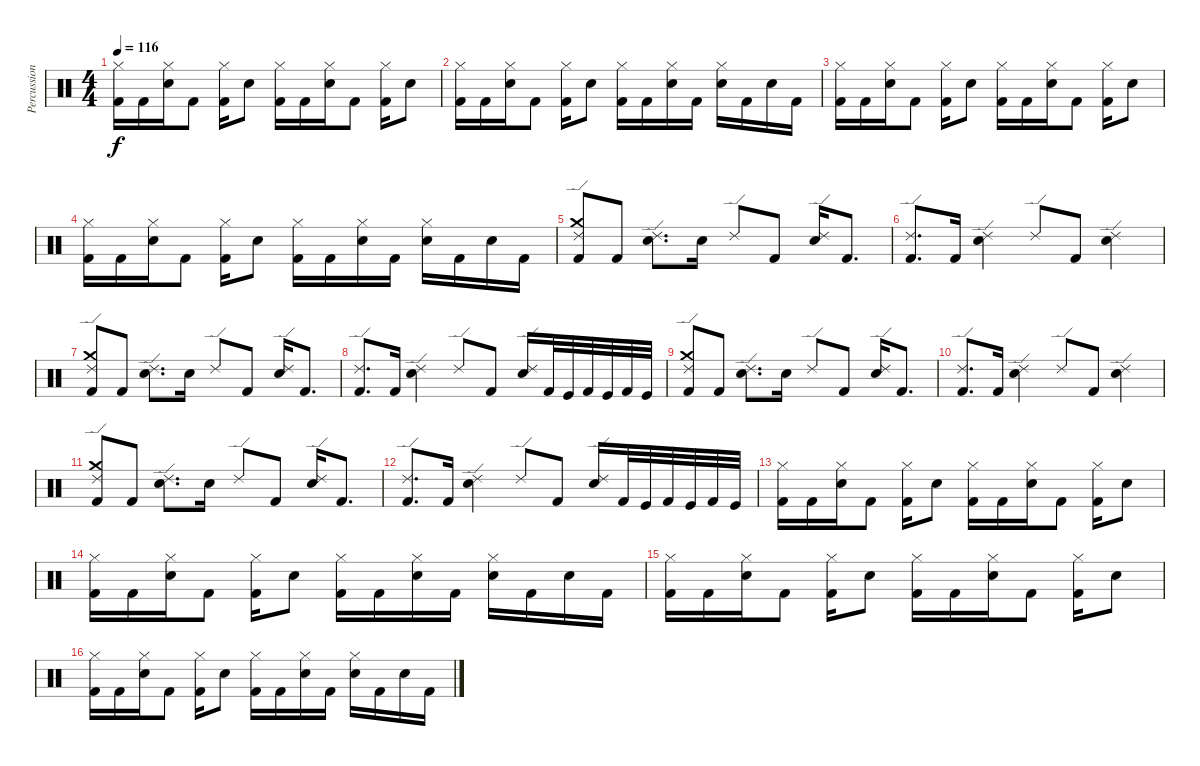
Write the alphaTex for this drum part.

\track ("Percussion" "Percussion") {instrument percussion}
\staff {score}
\articulation defaults
\ts (4 4)
\tempo 116
\clef neutral
\ks c
("Hi-Hat (closed)" "Kick (hit) 2").16{dy f} "Kick (hit) 2".16 ("Hi-Hat (closed)" "Snare (hit) 2").16 "Kick (hit) 2".8 ("Hi-Hat (closed)" "Kick (hit) 2").16 "Snare (hit) 2".8 ("Hi-Hat (closed)" "Kick (hit) 2").16 "Kick (hit) 2".16 ("Hi-Hat (closed)" "Snare (hit) 2").16 "Kick (hit) 2".8 ("Hi-Hat (closed)" "Kick (hit) 2").16 "Snare (hit) 2".8 |
("Hi-Hat (closed)" "Kick (hit) 2").16 "Kick (hit) 2".16 ("Hi-Hat (closed)" "Snare (hit) 2").16 "Kick (hit) 2".8 ("Hi-Hat (closed)" "Kick (hit) 2").16 "Snare (hit) 2".8 ("Hi-Hat (closed)" "Kick (hit) 2").16 "Kick (hit) 2".16 ("Hi-Hat (closed)" "Snare (hit) 2").16 "Kick (hit) 2".16 ("Hi-Hat (closed)" "Snare (hit) 2").16 "Kick (hit) 2".16 "Snare (hit) 2".16 "Kick (hit) 2".16 |
("Hi-Hat (closed)" "Kick (hit) 2").16 "Kick (hit) 2".16 ("Hi-Hat (closed)" "Snare (hit) 2").16 "Kick (hit) 2".8 ("Hi-Hat (closed)" "Kick (hit) 2").16 "Snare (hit) 2".8 ("Hi-Hat (closed)" "Kick (hit) 2").16 "Kick (hit) 2".16 ("Hi-Hat (closed)" "Snare (hit) 2").16 "Kick (hit) 2".8 ("Hi-Hat (closed)" "Kick (hit) 2").16 "Snare (hit) 2".8 |
("Hi-Hat (closed)" "Kick (hit) 2").16 "Kick (hit) 2".16 ("Hi-Hat (closed)" "Snare (hit) 2").16 "Kick (hit) 2".8 ("Hi-Hat (closed)" "Kick (hit) 2").16 "Snare (hit) 2".8 ("Hi-Hat (closed)" "Kick (hit) 2").16 "Kick (hit) 2".16 ("Hi-Hat (closed)" "Snare (hit) 2").16 "Kick (hit) 2".16 ("Hi-Hat (closed)" "Snare (hit) 2").16 "Kick (hit) 2".16 "Snare (hit) 2".16 "Kick (hit) 2".16 |
("Crash medium (hit)" "Ride (edge) 2" "Kick (hit) 2").8 "Kick (hit) 2".8 ("Ride (edge) 2" "Snare (hit) 2").8{d} "Snare (hit) 2".16 "Ride (edge) 2".8 "Kick (hit) 2".8 ("Ride (edge) 2" "Snare (hit) 2").16 "Kick (hit) 2".8{d} |
("Ride (edge) 2" "Kick (hit) 2").8{d} "Kick (hit) 2".16 ("Ride (edge) 2" "Snare (hit) 2").4 "Ride (edge) 2".8 "Kick (hit) 2".8 ("Ride (edge) 2" "Snare (hit) 2").4 |
("Crash medium (hit)" "Ride (edge) 2" "Kick (hit) 2").8 "Kick (hit) 2".8 ("Ride (edge) 2" "Snare (hit) 2").8{d} "Snare (hit) 2".16 "Ride (edge) 2".8 "Kick (hit) 2".8 ("Ride (edge) 2" "Snare (hit) 2").16 "Kick (hit) 2".8{d} |
("Ride (edge) 2" "Kick (hit) 2").8{d} "Kick (hit) 2".16 ("Ride (edge) 2" "Snare (hit) 2").4 "Ride (edge) 2".8 "Kick (hit) 2".8 ("Ride (edge) 2" "Snare (hit) 2").16 "Kick (hit) 2".32 "Kick (hit)".32 "Kick (hit) 2".32 "Kick (hit)".32 "Kick (hit) 2".32 "Kick (hit)".32 |
("Crash medium (hit)" "Ride (edge) 2" "Kick (hit) 2").8 "Kick (hit) 2".8 ("Ride (edge) 2" "Snare (hit) 2").8{d} "Snare (hit) 2".16 "Ride (edge) 2".8 "Kick (hit) 2".8 ("Ride (edge) 2" "Snare (hit) 2").16 "Kick (hit) 2".8{d} |
("Ride (edge) 2" "Kick (hit) 2").8{d} "Kick (hit) 2".16 ("Ride (edge) 2" "Snare (hit) 2").4 "Ride (edge) 2".8 "Kick (hit) 2".8 ("Ride (edge) 2" "Snare (hit) 2").4 |
("Crash medium (hit)" "Ride (edge) 2" "Kick (hit) 2").8 "Kick (hit) 2".8 ("Ride (edge) 2" "Snare (hit) 2").8{d} "Snare (hit) 2".16 "Ride (edge) 2".8 "Kick (hit) 2".8 ("Ride (edge) 2" "Snare (hit) 2").16 "Kick (hit) 2".8{d} |
("Ride (edge) 2" "Kick (hit) 2").8{d} "Kick (hit) 2".16 ("Ride (edge) 2" "Snare (hit) 2").4 "Ride (edge) 2".8 "Kick (hit) 2".8 ("Ride (edge) 2" "Snare (hit) 2").16 "Kick (hit) 2".32 "Kick (hit)".32 "Kick (hit) 2".32 "Kick (hit)".32 "Kick (hit) 2".32 "Kick (hit)".32 |
("Hi-Hat (closed)" "Kick (hit) 2").16 "Kick (hit) 2".16 ("Hi-Hat (closed)" "Snare (hit) 2").16 "Kick (hit) 2".8 ("Hi-Hat (closed)" "Kick (hit) 2").16 "Snare (hit) 2".8 ("Hi-Hat (closed)" "Kick (hit) 2").16 "Kick (hit) 2".16 ("Hi-Hat (closed)" "Snare (hit) 2").16 "Kick (hit) 2".8 ("Hi-Hat (closed)" "Kick (hit) 2").16 "Snare (hit) 2".8 |
("Hi-Hat (closed)" "Kick (hit) 2").16 "Kick (hit) 2".16 ("Hi-Hat (closed)" "Snare (hit) 2").16 "Kick (hit) 2".8 ("Hi-Hat (closed)" "Kick (hit) 2").16 "Snare (hit) 2".8 ("Hi-Hat (closed)" "Kick (hit) 2").16 "Kick (hit) 2".16 ("Hi-Hat (closed)" "Snare (hit) 2").16 "Kick (hit) 2".16 ("Hi-Hat (closed)" "Snare (hit) 2").16 "Kick (hit) 2".16 "Snare (hit) 2".16 "Kick (hit) 2".16 |
("Hi-Hat (closed)" "Kick (hit) 2").16 "Kick (hit) 2".16 ("Hi-Hat (closed)" "Snare (hit) 2").16 "Kick (hit) 2".8 ("Hi-Hat (closed)" "Kick (hit) 2").16 "Snare (hit) 2".8 ("Hi-Hat (closed)" "Kick (hit) 2").16 "Kick (hit) 2".16 ("Hi-Hat (closed)" "Snare (hit) 2").16 "Kick (hit) 2".8 ("Hi-Hat (closed)" "Kick (hit) 2").16 "Snare (hit) 2".8 |
("Hi-Hat (closed)" "Kick (hit) 2").16 "Kick (hit) 2".16 ("Hi-Hat (closed)" "Snare (hit) 2").16 "Kick (hit) 2".8 ("Hi-Hat (closed)" "Kick (hit) 2").16 "Snare (hit) 2".8 ("Hi-Hat (closed)" "Kick (hit) 2").16 "Kick (hit) 2".16 ("Hi-Hat (closed)" "Snare (hit) 2").16 "Kick (hit) 2".16 ("Hi-Hat (closed)" "Snare (hit) 2").16 "Kick (hit) 2".16 "Snare (hit) 2".16 "Kick (hit) 2".16
